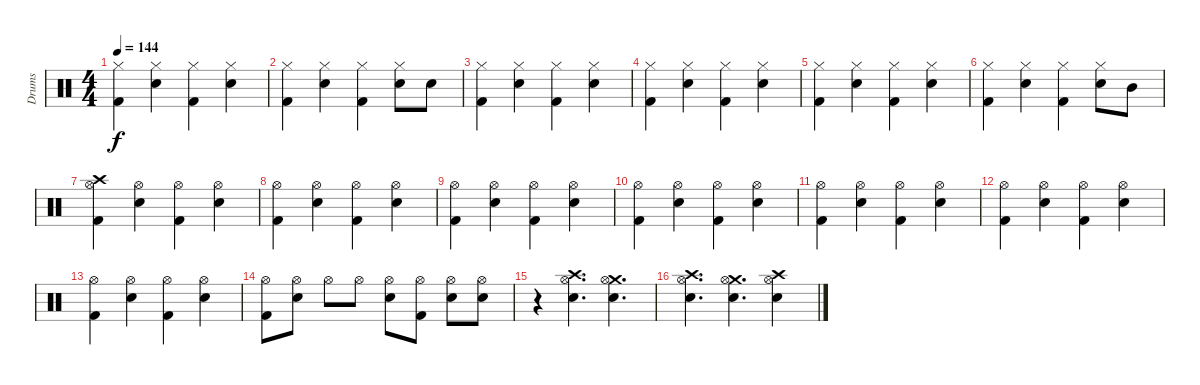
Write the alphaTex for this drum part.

\track ("Drums" "Drums") {instrument percussion}
\staff {score}
\articulation defaults
\ts (4 4)
\tempo 144
\clef neutral
\ks c
("Hi-Hat (closed)" "Kick (hit) 2").4{dy f} ("Hi-Hat (closed)" "Electric Snare (hit)").4 ("Hi-Hat (closed)" "Kick (hit) 2").4 ("Hi-Hat (closed)" "Electric Snare (hit)").4 |
("Hi-Hat (closed)" "Kick (hit) 2").4 ("Hi-Hat (closed)" "Electric Snare (hit)").4 ("Hi-Hat (closed)" "Kick (hit) 2").4 ("Hi-Hat (closed)" "Electric Snare (hit)").8 "Electric Snare (hit)".8 |
("Hi-Hat (closed)" "Kick (hit) 2").4 ("Hi-Hat (closed)" "Electric Snare (hit)").4 ("Hi-Hat (closed)" "Kick (hit) 2").4 ("Hi-Hat (closed)" "Electric Snare (hit)").4 |
("Hi-Hat (closed)" "Kick (hit) 2").4 ("Hi-Hat (closed)" "Electric Snare (hit)").4 ("Hi-Hat (closed)" "Kick (hit) 2").4 ("Hi-Hat (closed)" "Electric Snare (hit)").4 |
("Hi-Hat (closed)" "Kick (hit) 2").4 ("Hi-Hat (closed)" "Electric Snare (hit)").4 ("Hi-Hat (closed)" "Kick (hit) 2").4 ("Hi-Hat (closed)" "Electric Snare (hit)").4 |
("Hi-Hat (closed)" "Kick (hit) 2").4 ("Hi-Hat (closed)" "Electric Snare (hit)").4 ("Hi-Hat (closed)" "Kick (hit) 2").4 ("Hi-Hat (closed)" "Electric Snare (hit)").8 "Mid Tom (hit)".8 |
("Crash high (hit)" "Hi-Hat (open)" "Kick (hit) 2").4 ("Hi-Hat (open)" "Electric Snare (hit)").4 ("Hi-Hat (open)" "Kick (hit) 2").4 ("Hi-Hat (open)" "Electric Snare (hit)").4 |
("Hi-Hat (open)" "Kick (hit) 2").4 ("Hi-Hat (open)" "Electric Snare (hit)").4 ("Hi-Hat (open)" "Kick (hit) 2").4 ("Hi-Hat (open)" "Electric Snare (hit)").4 |
("Hi-Hat (open)" "Kick (hit) 2").4 ("Hi-Hat (open)" "Electric Snare (hit)").4 ("Hi-Hat (open)" "Kick (hit) 2").4 ("Hi-Hat (open)" "Electric Snare (hit)").4 |
("Hi-Hat (open)" "Kick (hit) 2").4 ("Hi-Hat (open)" "Electric Snare (hit)").4 ("Hi-Hat (open)" "Kick (hit) 2").4 ("Hi-Hat (open)" "Electric Snare (hit)").4 |
("Hi-Hat (open)" "Kick (hit) 2").4 ("Hi-Hat (open)" "Electric Snare (hit)").4 ("Hi-Hat (open)" "Kick (hit) 2").4 ("Hi-Hat (open)" "Electric Snare (hit)").4 |
("Hi-Hat (open)" "Kick (hit) 2").4 ("Hi-Hat (open)" "Electric Snare (hit)").4 ("Hi-Hat (open)" "Kick (hit) 2").4 ("Hi-Hat (open)" "Electric Snare (hit)").4 |
("Hi-Hat (open)" "Kick (hit) 2").4 ("Hi-Hat (open)" "Electric Snare (hit)").4 ("Hi-Hat (open)" "Kick (hit) 2").4 ("Hi-Hat (open)" "Electric Snare (hit)").4 |
("Hi-Hat (open)" "Kick (hit) 2").8 ("Hi-Hat (open)" "Electric Snare (hit)").8 "Hi-Hat (open)".8 "Hi-Hat (open)".8 ("Hi-Hat (open)" "Electric Snare (hit)").8 ("Hi-Hat (open)" "Kick (hit) 2").8 ("Hi-Hat (open)" "Electric Snare (hit)").8 ("Hi-Hat (open)" "Electric Snare (hit)").8 |
r.4 ("Crash high (hit)" "Hi-Hat (open)" "Electric Snare (hit)").4{d} ("Crash medium (hit)" "Hi-Hat (open)" "Electric Snare (hit)").4{d} |
("Crash high (hit)" "Hi-Hat (open)" "Electric Snare (hit)").4{d} ("Crash medium (hit)" "Hi-Hat (open)" "Electric Snare (hit)").4{d} ("Crash high (hit)" "Hi-Hat (open)" "Electric Snare (hit)").4
